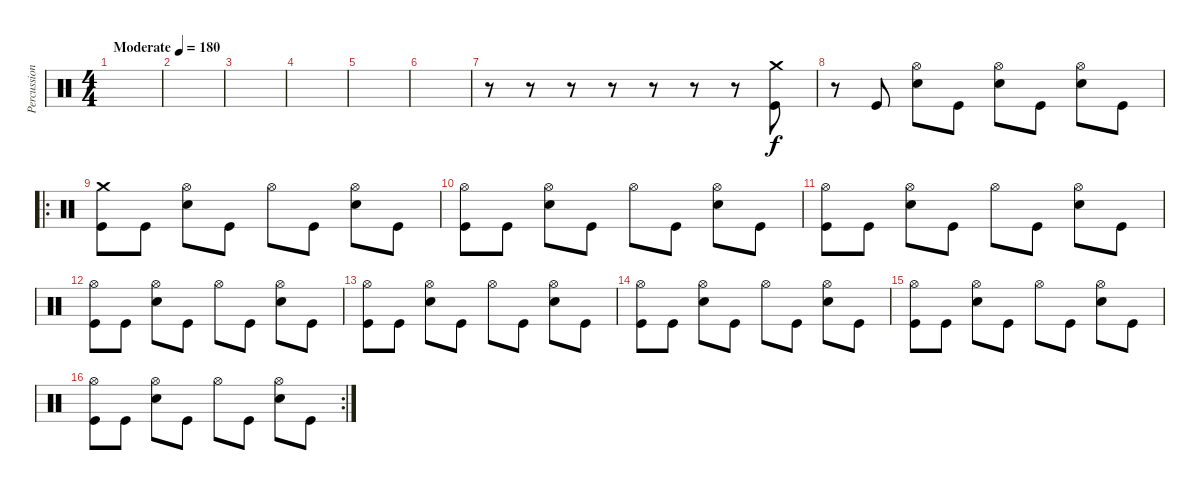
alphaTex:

\track ("Percussion" "Percussion") {instrument percussion}
\staff {score}
\articulation defaults
\ts (4 4)
\tempo (180 "Moderate")
\clef neutral
\ks c
|
|
|
|
|
|
r.8 r.8 r.8 r.8 r.8 r.8 r.8 ("Crash medium (hit)" "Kick (hit)").8 |
r.8 "Kick (hit)".8 ("Hi-Hat (open)" "Snare (hit) 2").8 "Kick (hit)".8 ("Hi-Hat (open)" "Snare (hit) 2").8 "Kick (hit)".8 ("Hi-Hat (open)" "Snare (hit) 2").8 "Kick (hit)".8 |
\ro
("Crash medium (hit)" "Kick (hit)").8 "Kick (hit)".8 ("Hi-Hat (open)" "Snare (hit) 2").8 "Kick (hit)".8 "Hi-Hat (open)".8 "Kick (hit)".8 ("Hi-Hat (open)" "Snare (hit) 2").8 "Kick (hit)".8 |
("Hi-Hat (open)" "Kick (hit)").8 "Kick (hit)".8 ("Hi-Hat (open)" "Snare (hit) 2").8 "Kick (hit)".8 "Hi-Hat (open)".8 "Kick (hit)".8 ("Hi-Hat (open)" "Snare (hit) 2").8 "Kick (hit)".8 |
("Hi-Hat (open)" "Kick (hit)").8 "Kick (hit)".8 ("Hi-Hat (open)" "Snare (hit) 2").8 "Kick (hit)".8 "Hi-Hat (open)".8 "Kick (hit)".8 ("Hi-Hat (open)" "Snare (hit) 2").8 "Kick (hit)".8 |
("Hi-Hat (open)" "Kick (hit)").8 "Kick (hit)".8 ("Hi-Hat (open)" "Snare (hit) 2").8 "Kick (hit)".8 "Hi-Hat (open)".8 "Kick (hit)".8 ("Hi-Hat (open)" "Snare (hit) 2").8 "Kick (hit)".8 |
("Hi-Hat (open)" "Kick (hit)").8 "Kick (hit)".8 ("Hi-Hat (open)" "Snare (hit) 2").8 "Kick (hit)".8 "Hi-Hat (open)".8 "Kick (hit)".8 ("Hi-Hat (open)" "Snare (hit) 2").8 "Kick (hit)".8 |
("Hi-Hat (open)" "Kick (hit)").8 "Kick (hit)".8 ("Hi-Hat (open)" "Snare (hit) 2").8 "Kick (hit)".8 "Hi-Hat (open)".8 "Kick (hit)".8 ("Hi-Hat (open)" "Snare (hit) 2").8 "Kick (hit)".8 |
("Hi-Hat (open)" "Kick (hit)").8 "Kick (hit)".8 ("Hi-Hat (open)" "Snare (hit) 2").8 "Kick (hit)".8 "Hi-Hat (open)".8 "Kick (hit)".8 ("Hi-Hat (open)" "Snare (hit) 2").8 "Kick (hit)".8 |
\rc 2
("Hi-Hat (open)" "Kick (hit)").8 "Kick (hit)".8 ("Hi-Hat (open)" "Snare (hit) 2").8 "Kick (hit)".8 "Hi-Hat (open)".8 "Kick (hit)".8 ("Hi-Hat (open)" "Snare (hit) 2").8 "Kick (hit)".8
